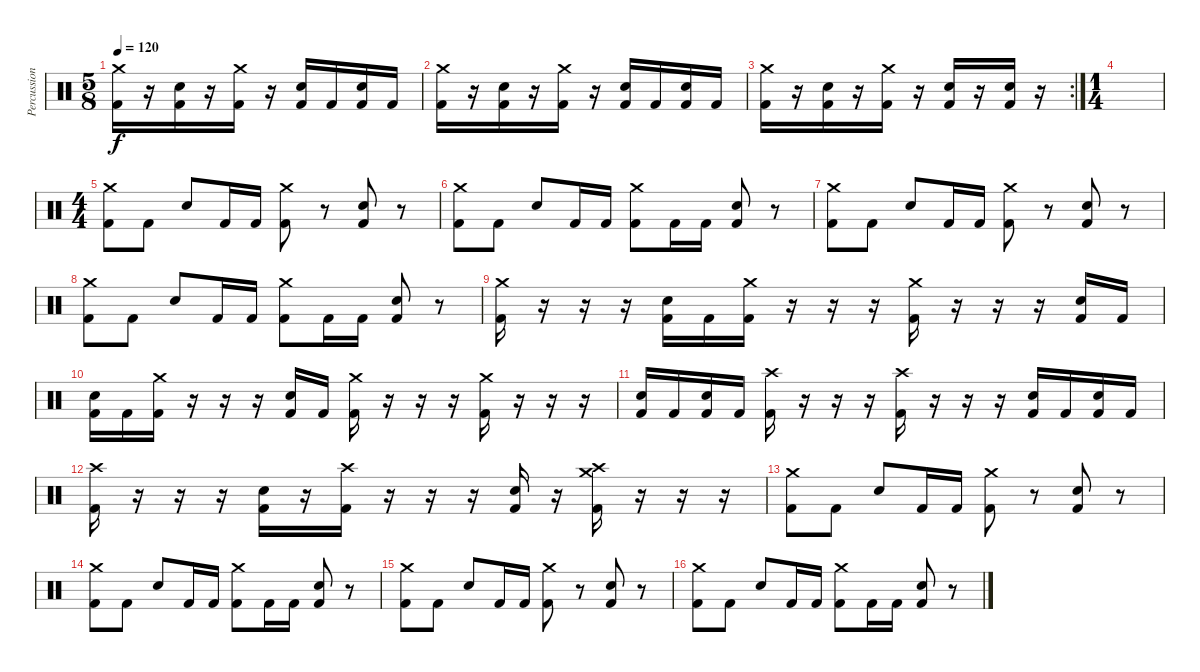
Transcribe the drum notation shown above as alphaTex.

\track ("Percussion" "Percussion") {instrument percussion}
\staff {score}
\articulation defaults
\ts (5 8)
\tempo 120
\clef neutral
\ks c
("Crash medium (hit)" "Kick (hit) 2").16{dy f} r.16 ("Electric Snare (hit)" "Kick (hit) 2").16 r.16 ("Crash medium (hit)" "Kick (hit) 2").16 r.16 ("Electric Snare (hit)" "Kick (hit) 2").16 "Kick (hit) 2".16 ("Electric Snare (hit)" "Kick (hit) 2").16 "Kick (hit) 2".16 |
("Crash medium (hit)" "Kick (hit) 2").16 r.16 ("Electric Snare (hit)" "Kick (hit) 2").16 r.16 ("Crash medium (hit)" "Kick (hit) 2").16 r.16 ("Electric Snare (hit)" "Kick (hit) 2").16 "Kick (hit) 2".16 ("Electric Snare (hit)" "Kick (hit) 2").16 "Kick (hit) 2".16 |
\rc 2
("Crash medium (hit)" "Kick (hit) 2").16 r.16 ("Electric Snare (hit)" "Kick (hit) 2").16 r.16 ("Crash medium (hit)" "Kick (hit) 2").16 r.16 ("Electric Snare (hit)" "Kick (hit) 2").16 r.16 ("Electric Snare (hit)" "Kick (hit) 2").16 r.16 |
\ts (1 4)
|
\ts (4 4)
("Crash medium (hit)" "Kick (hit) 2").8 "Kick (hit) 2".8 "Electric Snare (hit)".8 "Kick (hit) 2".16 "Kick (hit) 2".16 ("Crash medium (hit)" "Kick (hit) 2").8 r.8 ("Electric Snare (hit)" "Kick (hit) 2").8 r.8 |
("Crash medium (hit)" "Kick (hit) 2").8 "Kick (hit) 2".8 "Electric Snare (hit)".8 "Kick (hit) 2".16 "Kick (hit) 2".16 ("Crash medium (hit)" "Kick (hit) 2").8 "Kick (hit) 2".16 "Kick (hit) 2".16 ("Electric Snare (hit)" "Kick (hit) 2").8 r.8 |
("Crash medium (hit)" "Kick (hit) 2").8 "Kick (hit) 2".8 "Electric Snare (hit)".8 "Kick (hit) 2".16 "Kick (hit) 2".16 ("Crash medium (hit)" "Kick (hit) 2").8 r.8 ("Electric Snare (hit)" "Kick (hit) 2").8 r.8 |
("Crash medium (hit)" "Kick (hit) 2").8 "Kick (hit) 2".8 "Electric Snare (hit)".8 "Kick (hit) 2".16 "Kick (hit) 2".16 ("Crash medium (hit)" "Kick (hit) 2").8 "Kick (hit) 2".16 "Kick (hit) 2".16 ("Electric Snare (hit)" "Kick (hit) 2").8 r.8 |
("Crash medium (hit)" "Kick (hit) 2").16 r.16 r.16 r.16 ("Electric Snare (hit)" "Kick (hit) 2").16 "Kick (hit) 2".16 ("Crash medium (hit)" "Kick (hit) 2").16 r.16 r.16 r.16 ("Crash medium (hit)" "Kick (hit) 2").16 r.16 r.16 r.16 ("Electric Snare (hit)" "Kick (hit) 2").16 "Kick (hit) 2".16 |
("Electric Snare (hit)" "Kick (hit) 2").16 "Kick (hit) 2".16 ("Crash medium (hit)" "Kick (hit) 2").16 r.16 r.16 r.16 ("Electric Snare (hit)" "Kick (hit) 2").16 "Kick (hit) 2".16 ("Crash medium (hit)" "Kick (hit) 2").16 r.16 r.16 r.16 ("Crash medium (hit)" "Kick (hit) 2").16 r.16 r.16 r.16 |
("Electric Snare (hit)" "Kick (hit) 2").16 "Kick (hit) 2".16 ("Electric Snare (hit)" "Kick (hit) 2").16 "Kick (hit) 2".16 ("Crash high (hit)" "Kick (hit) 2").16 r.16 r.16 r.16 ("Crash high (hit)" "Kick (hit) 2").16 r.16 r.16 r.16 ("Electric Snare (hit)" "Kick (hit) 2").16 "Kick (hit) 2".16 ("Electric Snare (hit)" "Kick (hit) 2").16 "Kick (hit) 2".16 |
("Crash high (hit)" "Kick (hit) 2").16 r.16 r.16 r.16 ("Electric Snare (hit)" "Kick (hit) 2").16 r.16 ("Crash high (hit)" "Kick (hit) 2").16 r.16 r.16 r.16 ("Electric Snare (hit)" "Kick (hit) 2").16 r.16 ("Crash high (hit)" "Crash medium (hit)" "Kick (hit) 2").16 r.16 r.16 r.16 |
("Crash medium (hit)" "Kick (hit) 2").8 "Kick (hit) 2".8 "Electric Snare (hit)".8 "Kick (hit) 2".16 "Kick (hit) 2".16 ("Crash medium (hit)" "Kick (hit) 2").8 r.8 ("Electric Snare (hit)" "Kick (hit) 2").8 r.8 |
("Crash medium (hit)" "Kick (hit) 2").8 "Kick (hit) 2".8 "Electric Snare (hit)".8 "Kick (hit) 2".16 "Kick (hit) 2".16 ("Crash medium (hit)" "Kick (hit) 2").8 "Kick (hit) 2".16 "Kick (hit) 2".16 ("Electric Snare (hit)" "Kick (hit) 2").8 r.8 |
("Crash medium (hit)" "Kick (hit) 2").8 "Kick (hit) 2".8 "Electric Snare (hit)".8 "Kick (hit) 2".16 "Kick (hit) 2".16 ("Crash medium (hit)" "Kick (hit) 2").8 r.8 ("Electric Snare (hit)" "Kick (hit) 2").8 r.8 |
("Crash medium (hit)" "Kick (hit) 2").8 "Kick (hit) 2".8 "Electric Snare (hit)".8 "Kick (hit) 2".16 "Kick (hit) 2".16 ("Crash medium (hit)" "Kick (hit) 2").8 "Kick (hit) 2".16 "Kick (hit) 2".16 ("Electric Snare (hit)" "Kick (hit) 2").8 r.8
